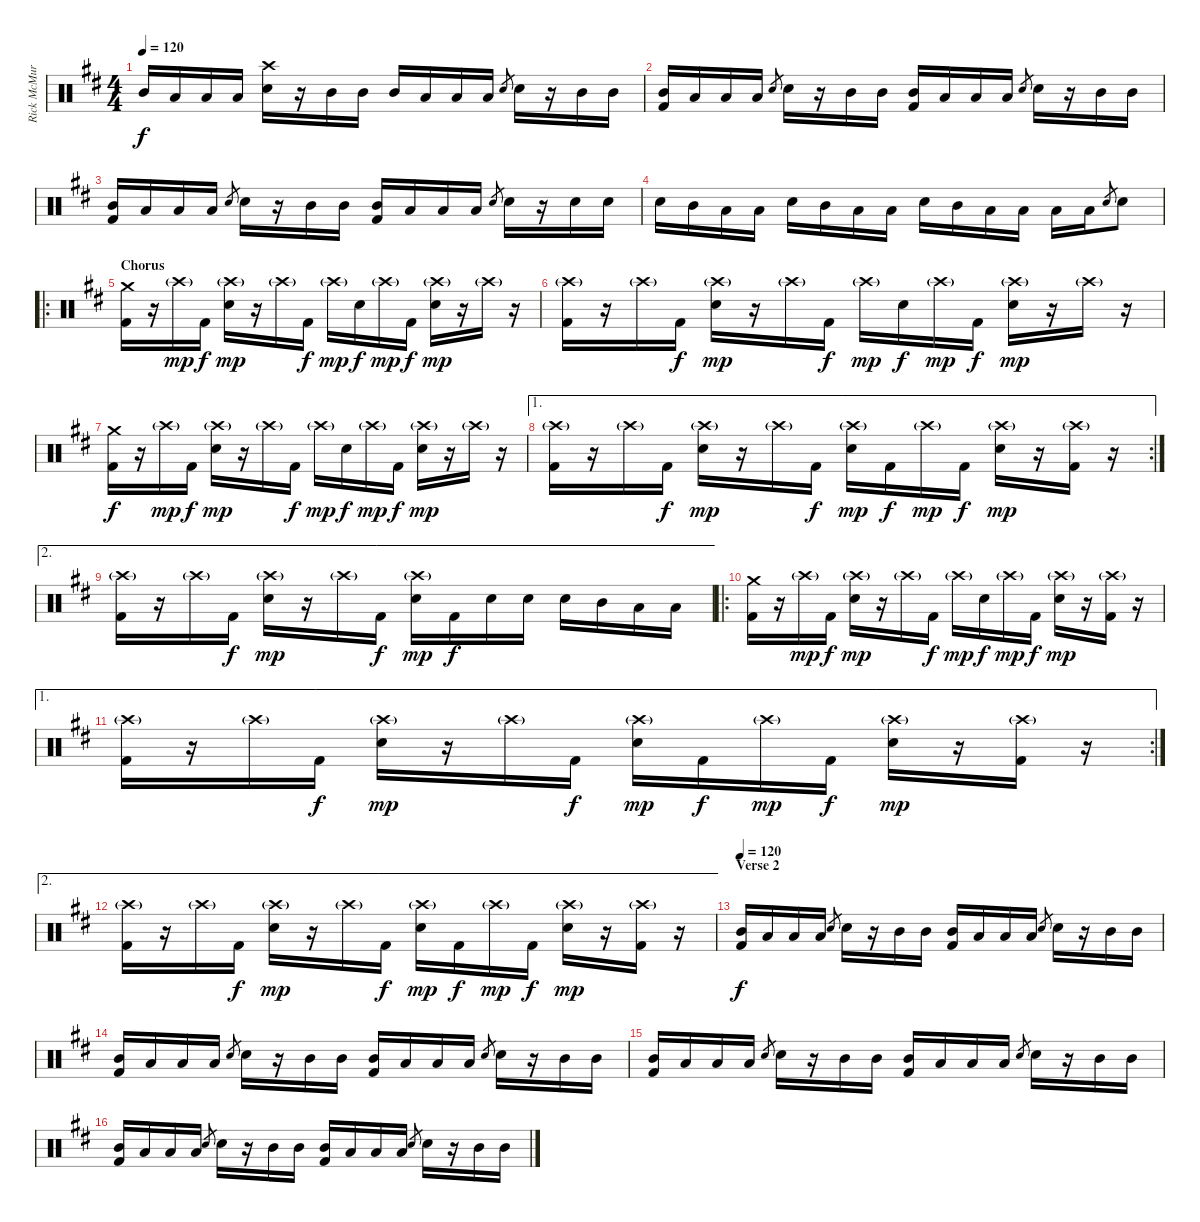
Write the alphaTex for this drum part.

\track ("Rick McMurray" "Rick McMur") {instrument percussion}
\staff {score}
\articulation defaults
\ts (4 4)
\tempo 120
\clef neutral
\ks d "Mid Tom (hit)".16{dy f} "Low Tom (hit)".16 "Low Floor Tom (hit)".16 "Low Floor Tom (hit)".16
("Crash high (hit)" "Snare (hit) 2").16 r.16 "Mid Tom (hit)".16 "Mid Tom (hit)".16 "Mid Tom (hit)".16 "Low Tom (hit)".16 "Low Floor Tom (hit)".16 "Low Floor Tom (hit)".16 "Snare (hit) 2".8{gr} "Snare (hit) 2".16 r.16 "Mid Tom (hit)".16 "Mid Tom (hit)".16 |
("Mid Tom (hit)" "Kick (hit) 2").16 "Low Tom (hit)".16 "Low Tom (hit)".16 "Low Floor Tom (hit)".16 "Snare (hit) 2".8{gr} "Snare (hit) 2".16 r.16 "Mid Tom (hit)".16 "Mid Tom (hit)".16 ("Mid Tom (hit)" "Kick (hit) 2").16 "Low Tom (hit)".16 "Low Floor Tom (hit)".16 "Low Floor Tom (hit)".16 "Snare (hit) 2".8{gr} "Snare (hit) 2".16 r.16 "Mid Tom (hit)".16 "Mid Tom (hit)".16 |
("Mid Tom (hit)" "Kick (hit) 2").16 "Low Tom (hit)".16 "Low Tom (hit)".16 "Low Floor Tom (hit)".16 "Snare (hit) 2".8{gr} "Snare (hit) 2".16 r.16 "Mid Tom (hit)".16 "Mid Tom (hit)".16 ("Mid Tom (hit)" "Kick (hit) 2").16 "Low Tom (hit)".16 "Low Floor Tom (hit)".16 "Low Floor Tom (hit)".16 "Snare (hit) 2".8{gr} "Snare (hit) 2".16 r.16 "Snare (hit) 2".16 "Snare (hit) 2".16 |
"Snare (hit) 2".16 "Mid Tom (hit)".16 "Low Tom (hit)".16 "Low Floor Tom (hit)".16 "Snare (hit) 2".16 "Mid Tom (hit)".16 "Low Tom (hit)".16 "Low Floor Tom (hit)".16 "Snare (hit) 2".16 "Mid Tom (hit)".16 "Low Tom (hit)".16 "Low Floor Tom (hit)".16 "Low Floor Tom (hit)".16 "Low Floor Tom (hit)".16 "Snare (hit) 2".8{gr} "Snare (hit) 2".8 |
\ro
\section ("" "Chorus")
("Crash medium (hit)" "Kick (hit) 2").16 r.16 "Crash high (hit)"{g}.16{dy mp} "Kick (hit) 2".16{dy f} ("Crash high (hit)"{g} "Snare (hit) 2").16{dy mp} r.16 "Crash high (hit)"{g}.16 "Kick (hit) 2".16{dy f} "Crash high (hit)"{g}.16{dy mp} "Snare (hit) 2".16{dy f} "Crash high (hit)"{g}.16{dy mp} "Kick (hit) 2".16{dy f} ("Crash high (hit)"{g} "Snare (hit) 2").16{dy mp} r.16 "Crash high (hit)"{g}.16 r.16 |
("Crash high (hit)"{g} "Kick (hit) 2").16 r.16 "Crash high (hit)"{g}.16 "Kick (hit) 2".16{dy f} ("Crash high (hit)"{g} "Snare (hit) 2").16{dy mp} r.16 "Crash high (hit)"{g}.16 "Kick (hit) 2".16{dy f} "Crash high (hit)"{g}.16{dy mp} "Snare (hit) 2".16{dy f} "Crash high (hit)"{g}.16{dy mp} "Kick (hit) 2".16{dy f} ("Crash high (hit)"{g} "Snare (hit) 2").16{dy mp} r.16 "Crash high (hit)"{g}.16 r.16 |
("Crash medium (hit)" "Kick (hit) 2").16{dy f} r.16 "Crash high (hit)"{g}.16{dy mp} "Kick (hit) 2".16{dy f} ("Crash high (hit)"{g} "Snare (hit) 2").16{dy mp} r.16 "Crash high (hit)"{g}.16 "Kick (hit) 2".16{dy f} "Crash high (hit)"{g}.16{dy mp} "Snare (hit) 2".16{dy f} "Crash high (hit)"{g}.16{dy mp} "Kick (hit) 2".16{dy f} ("Crash high (hit)"{g} "Snare (hit) 2").16{dy mp} r.16 "Crash high (hit)"{g}.16 r.16 |
\ae 1
\rc 2
("Crash high (hit)"{g} "Kick (hit) 2").16 r.16 "Crash high (hit)"{g}.16 "Kick (hit) 2".16{dy f} ("Crash high (hit)"{g} "Snare (hit) 2").16{dy mp} r.16 "Crash high (hit)"{g}.16 "Kick (hit) 2".16{dy f} ("Crash high (hit)"{g} "Snare (hit) 2").16{dy mp} "Kick (hit) 2".16{dy f} "Crash high (hit)"{g}.16{dy mp} "Kick (hit) 2".16{dy f} ("Crash high (hit)"{g} "Snare (hit) 2").16{dy mp} r.16 ("Crash high (hit)"{g} "Kick (hit) 2").16 r.16 |
\ae 2
("Crash high (hit)"{g} "Kick (hit) 2").16 r.16 "Crash high (hit)"{g}.16 "Kick (hit) 2".16{dy f} ("Crash high (hit)"{g} "Snare (hit) 2").16{dy mp} r.16 "Crash high (hit)"{g}.16 "Kick (hit) 2".16{dy f} ("Crash high (hit)"{g} "Snare (hit) 2").16{dy mp} "Kick (hit) 2".16{dy f} "Snare (hit) 2".16 "Snare (hit) 2".16 "Snare (hit) 2".16 "Mid Tom (hit)".16 "Low Tom (hit)".16 "Low Floor Tom (hit)".16 |
\ro
("Crash medium (hit)" "Kick (hit) 2").16 r.16 "Crash high (hit)"{g}.16{dy mp} "Kick (hit) 2".16{dy f} ("Crash high (hit)"{g} "Snare (hit) 2").16{dy mp} r.16 "Crash high (hit)"{g}.16 "Kick (hit) 2".16{dy f} "Crash high (hit)"{g}.16{dy mp} "Snare (hit) 2".16{dy f} "Crash high (hit)"{g}.16{dy mp} "Kick (hit) 2".16{dy f} ("Crash high (hit)"{g} "Snare (hit) 2").16{dy mp} r.16 ("Crash high (hit)"{g} "Kick (hit) 2").16 r.16 |
\ae 1
\rc 2
("Crash high (hit)"{g} "Kick (hit) 2").16 r.16 "Crash high (hit)"{g}.16 "Kick (hit) 2".16{dy f} ("Crash high (hit)"{g} "Snare (hit) 2").16{dy mp} r.16 "Crash high (hit)"{g}.16 "Kick (hit) 2".16{dy f} ("Crash high (hit)"{g} "Snare (hit) 2").16{dy mp} "Kick (hit) 2".16{dy f} "Crash high (hit)"{g}.16{dy mp} "Kick (hit) 2".16{dy f} ("Crash high (hit)"{g} "Snare (hit) 2").16{dy mp} r.16 ("Crash high (hit)"{g} "Kick (hit) 2").16 r.16 |
\ae 2
("Crash high (hit)"{g} "Kick (hit) 2").16 r.16 "Crash high (hit)"{g}.16 "Kick (hit) 2".16{dy f} ("Crash high (hit)"{g} "Snare (hit) 2").16{dy mp} r.16 "Crash high (hit)"{g}.16 "Kick (hit) 2".16{dy f} ("Crash high (hit)"{g} "Snare (hit) 2").16{dy mp} "Kick (hit) 2".16{dy f} "Crash high (hit)"{g}.16{dy mp} "Kick (hit) 2".16{dy f} ("Crash high (hit)"{g} "Snare (hit) 2").16{dy mp} r.16 ("Crash high (hit)"{g} "Kick (hit) 2").16 r.16 |
\section ("" "Verse 2")
\tempo 120
("Mid Tom (hit)" "Kick (hit) 2").16{dy f} "Low Tom (hit)".16 "Low Floor Tom (hit)".16 "Low Floor Tom (hit)".16 "Snare (hit) 2".8{gr} "Snare (hit) 2".16 r.16 "Mid Tom (hit)".16 "Mid Tom (hit)".16 ("Mid Tom (hit)" "Kick (hit) 2").16 "Low Tom (hit)".16 "Low Floor Tom (hit)".16 "Low Floor Tom (hit)".16 "Snare (hit) 2".8{gr} "Snare (hit) 2".16 r.16 "Mid Tom (hit)".16 "Mid Tom (hit)".16 |
("Mid Tom (hit)" "Kick (hit) 2").16 "Low Tom (hit)".16 "Low Tom (hit)".16 "Low Floor Tom (hit)".16 "Snare (hit) 2".8{gr} "Snare (hit) 2".16 r.16 "Mid Tom (hit)".16 "Mid Tom (hit)".16 ("Mid Tom (hit)" "Kick (hit) 2").16 "Low Tom (hit)".16 "Low Floor Tom (hit)".16 "Low Floor Tom (hit)".16 "Snare (hit) 2".8{gr} "Snare (hit) 2".16 r.16 "Mid Tom (hit)".16 "Mid Tom (hit)".16 |
("Mid Tom (hit)" "Kick (hit) 2").16 "Low Tom (hit)".16 "Low Floor Tom (hit)".16 "Low Floor Tom (hit)".16 "Snare (hit) 2".8{gr} "Snare (hit) 2".16 r.16 "Mid Tom (hit)".16 "Mid Tom (hit)".16 ("Mid Tom (hit)" "Kick (hit) 2").16 "Low Tom (hit)".16 "Low Floor Tom (hit)".16 "Low Floor Tom (hit)".16 "Snare (hit) 2".8{gr} "Snare (hit) 2".16 r.16 "Mid Tom (hit)".16 "Mid Tom (hit)".16 |
("Mid Tom (hit)" "Kick (hit) 2").16 "Low Tom (hit)".16 "Low Tom (hit)".16 "Low Floor Tom (hit)".16 "Snare (hit) 2".8{gr} "Snare (hit) 2".16 r.16 "Mid Tom (hit)".16 "Mid Tom (hit)".16 ("Mid Tom (hit)" "Kick (hit) 2").16 "Low Tom (hit)".16 "Low Floor Tom (hit)".16 "Low Floor Tom (hit)".16 "Snare (hit) 2".8{gr} "Snare (hit) 2".16 r.16 "Mid Tom (hit)".16 "Mid Tom (hit)".16
